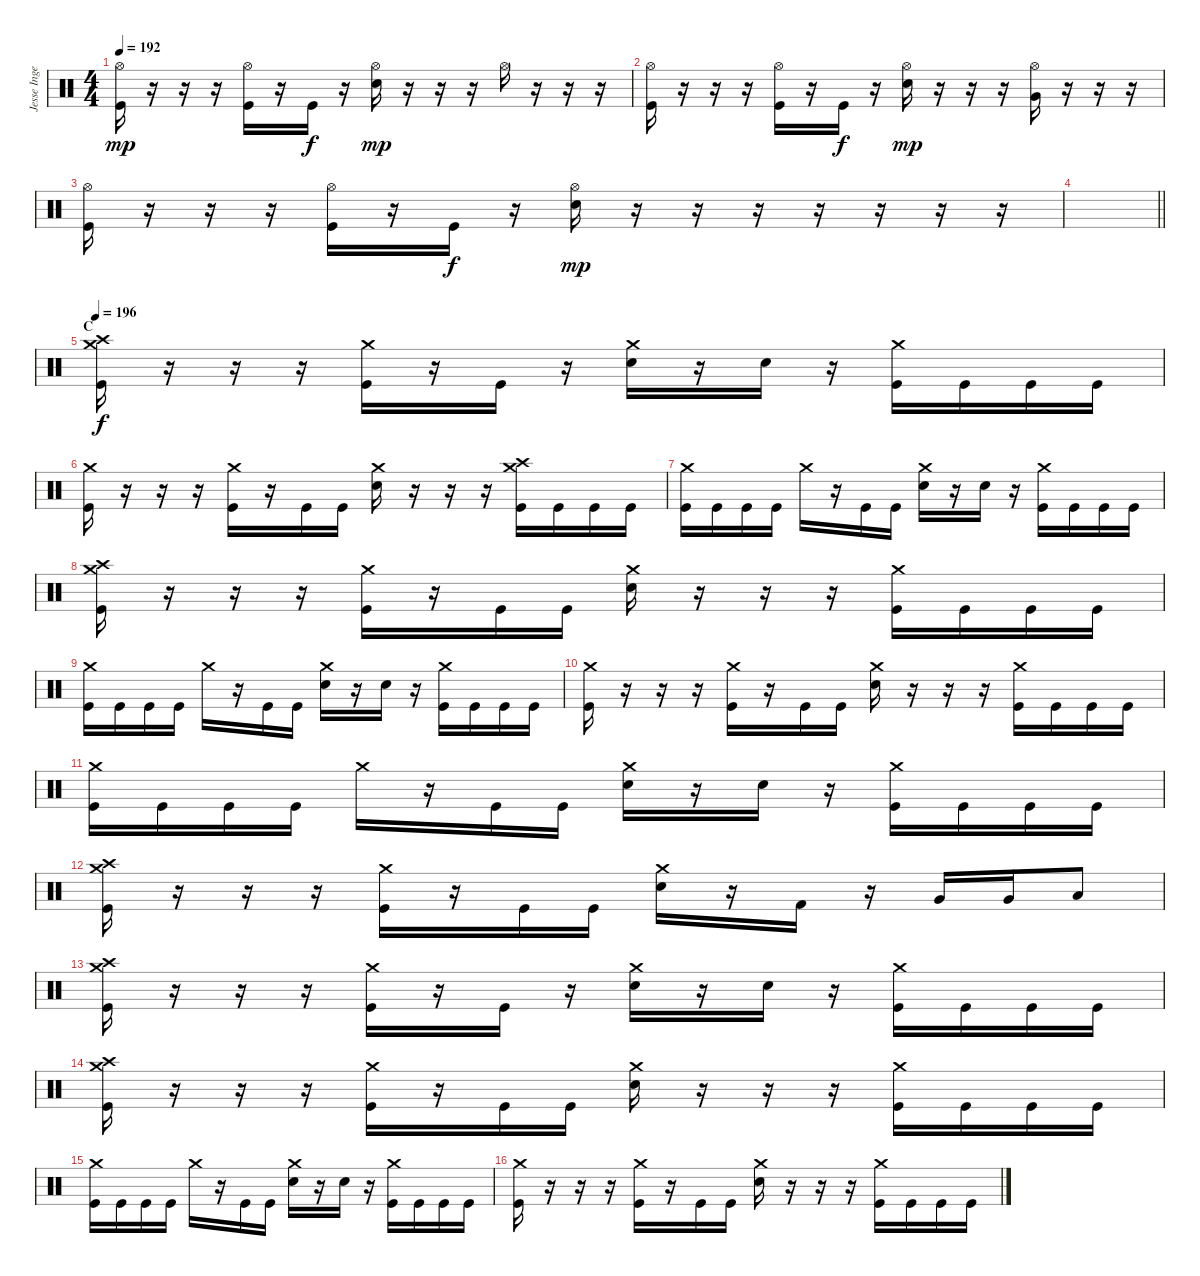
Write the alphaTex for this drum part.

\track ("Jesse Ingelevics" "Jesse Inge") {instrument percussion}
\staff {score}
\articulation defaults
\ts (4 4)
\tempo 192
\clef neutral
\ks c
("Hi-Hat (open)" "Kick (hit)").16{dy mp} r.16 r.16 r.16 ("Hi-Hat (open)" "Kick (hit)").16 r.16 "Kick (hit)".16{dy f} r.16 ("Hi-Hat (open)" "Electric Snare (hit)").16{dy mp} r.16 r.16 r.16 "Hi-Hat (open)".16 r.16 r.16 r.16 |
("Hi-Hat (open)" "Kick (hit)").16 r.16 r.16 r.16 ("Hi-Hat (open)" "Kick (hit)").16 r.16 "Kick (hit)".16{dy f} r.16 ("Hi-Hat (open)" "Electric Snare (hit)").16{dy mp} r.16 r.16 r.16 ("Hi-Hat (open)" "Very Low Tom (hit)").16 r.16 r.16 r.16 |
("Hi-Hat (open)" "Kick (hit)").16 r.16 r.16 r.16 ("Hi-Hat (open)" "Kick (hit)").16 r.16 "Kick (hit)".16{dy f} r.16 ("Hi-Hat (open)" "Electric Snare (hit)").16{dy mp} r.16 r.16 r.16 r.16 r.16 r.16 r.16 |
\barLineRight lightlight
|
\section ("" "C")
\tempo 196
("Crash high (hit)" "Crash medium (hit)" "Kick (hit)").16{dy f} r.16 r.16 r.16 ("Crash medium (hit)" "Kick (hit)").16 r.16 "Kick (hit)".16 r.16 ("Crash medium (hit)" "Electric Snare (hit)").16 r.16 "Electric Snare (hit)".16 r.16 ("Crash medium (hit)" "Kick (hit)").16 "Kick (hit)".16 "Kick (hit)".16 "Kick (hit)".16 |
("Crash medium (hit)" "Kick (hit)").16 r.16 r.16 r.16 ("Crash medium (hit)" "Kick (hit)").16 r.16 "Kick (hit)".16 "Kick (hit)".16 ("Crash medium (hit)" "Electric Snare (hit)").16 r.16 r.16 r.16 ("Crash medium (hit)" "Crash high (hit)" "Kick (hit)").16 "Kick (hit)".16 "Kick (hit)".16 "Kick (hit)".16 |
("Crash medium (hit)" "Kick (hit)").16 "Kick (hit)".16 "Kick (hit)".16 "Kick (hit)".16 "Crash medium (hit)".16 r.16 "Kick (hit)".16 "Kick (hit)".16 ("Crash medium (hit)" "Electric Snare (hit)").16 r.16 "Electric Snare (hit)".16 r.16 ("Crash medium (hit)" "Kick (hit)").16 "Kick (hit)".16 "Kick (hit)".16 "Kick (hit)".16 |
("Crash medium (hit)" "Crash high (hit)" "Kick (hit)").16 r.16 r.16 r.16 ("Crash medium (hit)" "Kick (hit)").16 r.16 "Kick (hit)".16 "Kick (hit)".16 ("Crash medium (hit)" "Electric Snare (hit)").16 r.16 r.16 r.16 ("Crash medium (hit)" "Kick (hit)").16 "Kick (hit)".16 "Kick (hit)".16 "Kick (hit)".16 |
("Crash medium (hit)" "Kick (hit)").16 "Kick (hit)".16 "Kick (hit)".16 "Kick (hit)".16 "Crash medium (hit)".16 r.16 "Kick (hit)".16 "Kick (hit)".16 ("Crash medium (hit)" "Electric Snare (hit)").16 r.16 "Electric Snare (hit)".16 r.16 ("Crash medium (hit)" "Kick (hit)").16 "Kick (hit)".16 "Kick (hit)".16 "Kick (hit)".16 |
("Crash medium (hit)" "Kick (hit)").16 r.16 r.16 r.16 ("Crash medium (hit)" "Kick (hit)").16 r.16 "Kick (hit)".16 "Kick (hit)".16 ("Crash medium (hit)" "Electric Snare (hit)").16 r.16 r.16 r.16 ("Crash medium (hit)" "Kick (hit)").16 "Kick (hit)".16 "Kick (hit)".16 "Kick (hit)".16 |
("Crash medium (hit)" "Kick (hit)").16 "Kick (hit)".16 "Kick (hit)".16 "Kick (hit)".16 "Crash medium (hit)".16 r.16 "Kick (hit)".16 "Kick (hit)".16 ("Crash medium (hit)" "Electric Snare (hit)").16 r.16 "Electric Snare (hit)".16 r.16 ("Crash medium (hit)" "Kick (hit)").16 "Kick (hit)".16 "Kick (hit)".16 "Kick (hit)".16 |
("Crash medium (hit)" "Crash high (hit)" "Kick (hit)").16 r.16 r.16 r.16 ("Crash medium (hit)" "Kick (hit)").16 r.16 "Kick (hit)".16 "Kick (hit)".16 ("Crash medium (hit)" "Electric Snare (hit)").16 r.16 "Kick (hit) 2".16 r.16 "Very Low Tom (hit)".16 "Very Low Tom (hit)".16 "Low Tom (hit)".8 |
("Crash high (hit)" "Crash medium (hit)" "Kick (hit)").16 r.16 r.16 r.16 ("Crash medium (hit)" "Kick (hit)").16 r.16 "Kick (hit)".16 r.16 ("Crash medium (hit)" "Electric Snare (hit)").16 r.16 "Electric Snare (hit)".16 r.16 ("Crash medium (hit)" "Kick (hit)").16 "Kick (hit)".16 "Kick (hit)".16 "Kick (hit)".16 |
("Crash medium (hit)" "Crash high (hit)" "Kick (hit)").16 r.16 r.16 r.16 ("Crash medium (hit)" "Kick (hit)").16 r.16 "Kick (hit)".16 "Kick (hit)".16 ("Crash medium (hit)" "Electric Snare (hit)").16 r.16 r.16 r.16 ("Crash medium (hit)" "Kick (hit)").16 "Kick (hit)".16 "Kick (hit)".16 "Kick (hit)".16 |
("Crash medium (hit)" "Kick (hit)").16 "Kick (hit)".16 "Kick (hit)".16 "Kick (hit)".16 "Crash medium (hit)".16 r.16 "Kick (hit)".16 "Kick (hit)".16 ("Crash medium (hit)" "Electric Snare (hit)").16 r.16 "Electric Snare (hit)".16 r.16 ("Crash medium (hit)" "Kick (hit)").16 "Kick (hit)".16 "Kick (hit)".16 "Kick (hit)".16 |
("Crash medium (hit)" "Kick (hit)").16 r.16 r.16 r.16 ("Crash medium (hit)" "Kick (hit)").16 r.16 "Kick (hit)".16 "Kick (hit)".16 ("Crash medium (hit)" "Electric Snare (hit)").16 r.16 r.16 r.16 ("Crash medium (hit)" "Kick (hit)").16 "Kick (hit)".16 "Kick (hit)".16 "Kick (hit)".16
